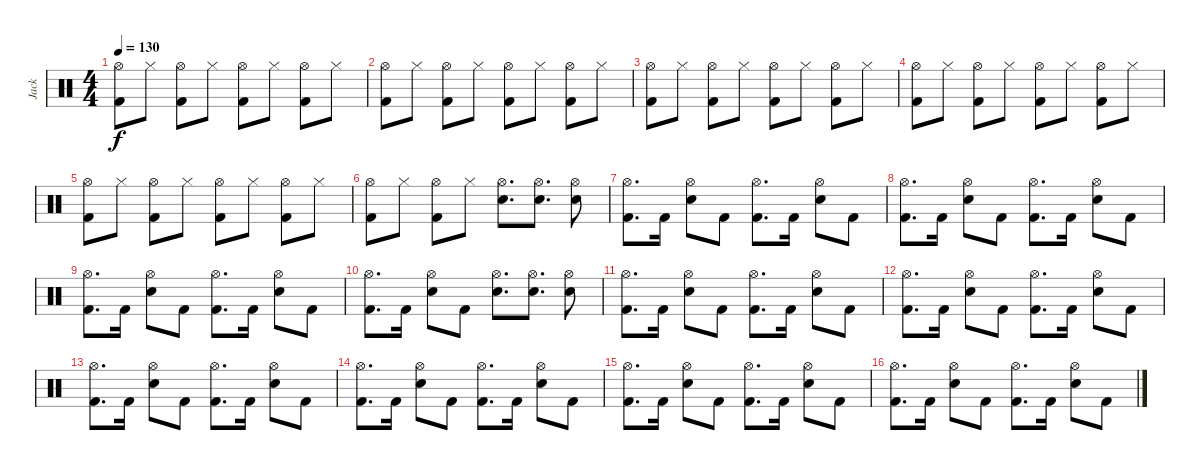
\track ("Jack" "Jack") {instrument percussion}
\staff {score}
\articulation defaults
\ts (4 4)
\tempo 130
\clef neutral
\ks c
("Hi-Hat (open)" "Kick (hit) 2").8{dy f} "Hi-Hat (closed)".8 ("Hi-Hat (open)" "Kick (hit) 2").8 "Hi-Hat (closed)".8 ("Hi-Hat (open)" "Kick (hit) 2").8 "Hi-Hat (closed)".8 ("Hi-Hat (open)" "Kick (hit) 2").8 "Hi-Hat (closed)".8 |
("Hi-Hat (open)" "Kick (hit) 2").8 "Hi-Hat (closed)".8 ("Hi-Hat (open)" "Kick (hit) 2").8 "Hi-Hat (closed)".8 ("Hi-Hat (open)" "Kick (hit) 2").8 "Hi-Hat (closed)".8 ("Hi-Hat (open)" "Kick (hit) 2").8 "Hi-Hat (closed)".8 |
("Hi-Hat (open)" "Kick (hit) 2").8 "Hi-Hat (closed)".8 ("Hi-Hat (open)" "Kick (hit) 2").8 "Hi-Hat (closed)".8 ("Hi-Hat (open)" "Kick (hit) 2").8 "Hi-Hat (closed)".8 ("Hi-Hat (open)" "Kick (hit) 2").8 "Hi-Hat (closed)".8 |
("Hi-Hat (open)" "Kick (hit) 2").8 "Hi-Hat (closed)".8 ("Hi-Hat (open)" "Kick (hit) 2").8 "Hi-Hat (closed)".8 ("Hi-Hat (open)" "Kick (hit) 2").8 "Hi-Hat (closed)".8 ("Hi-Hat (open)" "Kick (hit) 2").8 "Hi-Hat (closed)".8 |
("Hi-Hat (open)" "Kick (hit) 2").8 "Hi-Hat (closed)".8 ("Hi-Hat (open)" "Kick (hit) 2").8 "Hi-Hat (closed)".8 ("Hi-Hat (open)" "Kick (hit) 2").8 "Hi-Hat (closed)".8 ("Hi-Hat (open)" "Kick (hit) 2").8 "Hi-Hat (closed)".8 |
("Hi-Hat (open)" "Kick (hit) 2").8 "Hi-Hat (closed)".8 ("Hi-Hat (open)" "Kick (hit) 2").8 "Hi-Hat (closed)".8 ("Hi-Hat (open)" "Snare (hit) 2").8{d} ("Hi-Hat (open)" "Snare (hit) 2").8{d} ("Hi-Hat (open)" "Snare (hit) 2").8 |
("Hi-Hat (open)" "Kick (hit) 2").8{d} "Kick (hit) 2".16 ("Hi-Hat (open)" "Snare (hit) 2").8 "Kick (hit) 2".8 ("Hi-Hat (open)" "Kick (hit) 2").8{d} "Kick (hit) 2".16 ("Hi-Hat (open)" "Snare (hit) 2").8 "Kick (hit) 2".8 |
("Hi-Hat (open)" "Kick (hit) 2").8{d} "Kick (hit) 2".16 ("Hi-Hat (open)" "Snare (hit) 2").8 "Kick (hit) 2".8 ("Hi-Hat (open)" "Kick (hit) 2").8{d} "Kick (hit) 2".16 ("Hi-Hat (open)" "Snare (hit) 2").8 "Kick (hit) 2".8 |
("Hi-Hat (open)" "Kick (hit) 2").8{d} "Kick (hit) 2".16 ("Hi-Hat (open)" "Snare (hit) 2").8 "Kick (hit) 2".8 ("Hi-Hat (open)" "Kick (hit) 2").8{d} "Kick (hit) 2".16 ("Hi-Hat (open)" "Snare (hit) 2").8 "Kick (hit) 2".8 |
("Hi-Hat (open)" "Kick (hit) 2").8{d} "Kick (hit) 2".16 ("Hi-Hat (open)" "Snare (hit) 2").8 "Kick (hit) 2".8 ("Hi-Hat (open)" "Snare (hit) 2").8{d} ("Hi-Hat (open)" "Snare (hit) 2").8{d} ("Hi-Hat (open)" "Snare (hit) 2").8 |
("Hi-Hat (open)" "Kick (hit) 2").8{d} "Kick (hit) 2".16 ("Hi-Hat (open)" "Snare (hit) 2").8 "Kick (hit) 2".8 ("Hi-Hat (open)" "Kick (hit) 2").8{d} "Kick (hit) 2".16 ("Hi-Hat (open)" "Snare (hit) 2").8 "Kick (hit) 2".8 |
("Hi-Hat (open)" "Kick (hit) 2").8{d} "Kick (hit) 2".16 ("Hi-Hat (open)" "Snare (hit) 2").8 "Kick (hit) 2".8 ("Hi-Hat (open)" "Kick (hit) 2").8{d} "Kick (hit) 2".16 ("Hi-Hat (open)" "Snare (hit) 2").8 "Kick (hit) 2".8 |
("Hi-Hat (open)" "Kick (hit) 2").8{d} "Kick (hit) 2".16 ("Hi-Hat (open)" "Snare (hit) 2").8 "Kick (hit) 2".8 ("Hi-Hat (open)" "Kick (hit) 2").8{d} "Kick (hit) 2".16 ("Hi-Hat (open)" "Snare (hit) 2").8 "Kick (hit) 2".8 |
("Hi-Hat (open)" "Kick (hit) 2").8{d} "Kick (hit) 2".16 ("Hi-Hat (open)" "Snare (hit) 2").8 "Kick (hit) 2".8 ("Hi-Hat (open)" "Kick (hit) 2").8{d} "Kick (hit) 2".16 ("Hi-Hat (open)" "Snare (hit) 2").8 "Kick (hit) 2".8 |
("Hi-Hat (open)" "Kick (hit) 2").8{d} "Kick (hit) 2".16 ("Hi-Hat (open)" "Snare (hit) 2").8 "Kick (hit) 2".8 ("Hi-Hat (open)" "Kick (hit) 2").8{d} "Kick (hit) 2".16 ("Hi-Hat (open)" "Snare (hit) 2").8 "Kick (hit) 2".8 |
("Hi-Hat (open)" "Kick (hit) 2").8{d} "Kick (hit) 2".16 ("Hi-Hat (open)" "Snare (hit) 2").8 "Kick (hit) 2".8 ("Hi-Hat (open)" "Kick (hit) 2").8{d} "Kick (hit) 2".16 ("Hi-Hat (open)" "Snare (hit) 2").8 "Kick (hit) 2".8
